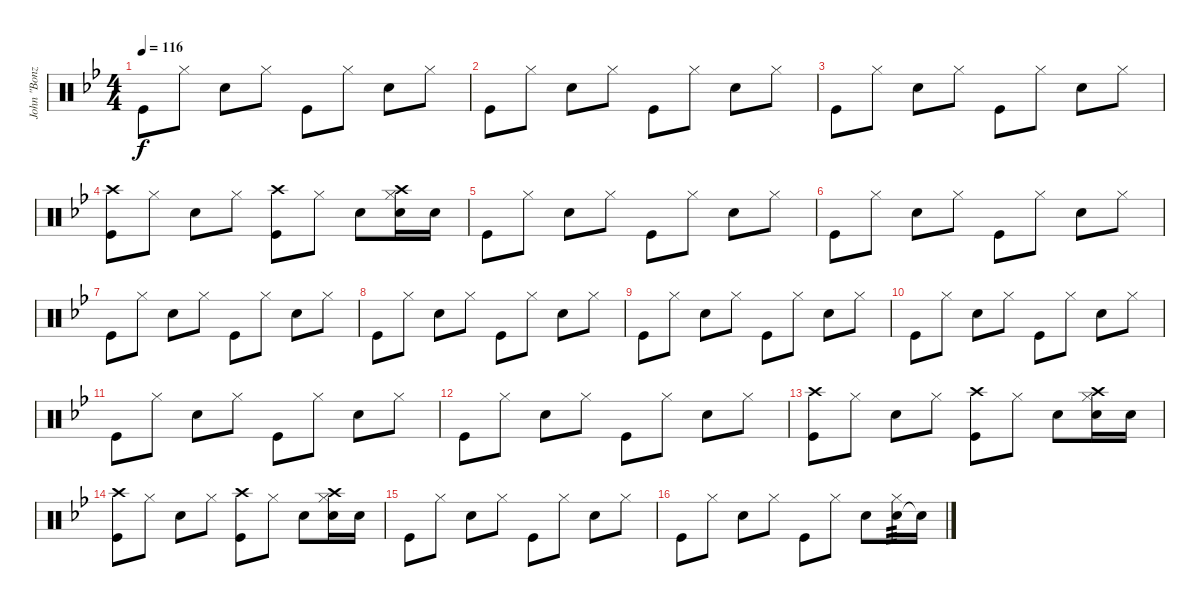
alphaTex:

\track ("John \"Bonzo\" Bonham" "John \"Bonz") {instrument percussion}
\staff {score}
\articulation defaults
\ts (4 4)
\tempo 116
\clef neutral
\ks bb "Kick (hit)".8{dy f} "Hi-Hat (closed)".8 "Snare (hit) 2".8 "Hi-Hat (closed)".8 "Kick (hit)".8 "Hi-Hat (closed)".8 "Snare (hit) 2".8 "Hi-Hat (closed)".8
|
"Kick (hit)".8 "Hi-Hat (closed)".8 "Snare (hit) 2".8 "Hi-Hat (closed)".8 "Kick (hit)".8 "Hi-Hat (closed)".8 "Snare (hit) 2".8 "Hi-Hat (closed)".8 |
"Kick (hit)".8 "Hi-Hat (closed)".8 "Snare (hit) 2".8 "Hi-Hat (closed)".8 "Kick (hit)".8 "Hi-Hat (closed)".8 "Snare (hit) 2".8 "Hi-Hat (closed)".8 |
("Kick (hit)" "Crash high (hit)").8 "Hi-Hat (closed)".8 "Snare (hit) 2".8 "Hi-Hat (closed)".8 ("Kick (hit)" "Crash high (hit)").8 "Hi-Hat (closed)".8 "Snare (hit) 2".8 ("Snare (hit) 2" "Hi-Hat (closed)" "Crash high (hit)").16 "Snare (hit) 2".16 |
"Kick (hit)".8 "Hi-Hat (closed)".8 "Snare (hit) 2".8 "Hi-Hat (closed)".8 "Kick (hit)".8 "Hi-Hat (closed)".8 "Snare (hit) 2".8 "Hi-Hat (closed)".8 |
"Kick (hit)".8 "Hi-Hat (closed)".8 "Snare (hit) 2".8 "Hi-Hat (closed)".8 "Kick (hit)".8 "Hi-Hat (closed)".8 "Snare (hit) 2".8 "Hi-Hat (closed)".8 |
"Kick (hit)".8 "Hi-Hat (closed)".8 "Snare (hit) 2".8 "Hi-Hat (closed)".8 "Kick (hit)".8 "Hi-Hat (closed)".8 "Snare (hit) 2".8 "Hi-Hat (closed)".8 |
"Kick (hit)".8 "Hi-Hat (closed)".8 "Snare (hit) 2".8 "Hi-Hat (closed)".8 "Kick (hit)".8 "Hi-Hat (closed)".8 "Snare (hit) 2".8 "Hi-Hat (closed)".8 |
"Kick (hit)".8 "Hi-Hat (closed)".8 "Snare (hit) 2".8 "Hi-Hat (closed)".8 "Kick (hit)".8 "Hi-Hat (closed)".8 "Snare (hit) 2".8 "Hi-Hat (closed)".8 |
"Kick (hit)".8 "Hi-Hat (closed)".8 "Snare (hit) 2".8 "Hi-Hat (closed)".8 "Kick (hit)".8 "Hi-Hat (closed)".8 "Snare (hit) 2".8 "Hi-Hat (closed)".8 |
"Kick (hit)".8 "Hi-Hat (closed)".8 "Snare (hit) 2".8 "Hi-Hat (closed)".8 "Kick (hit)".8 "Hi-Hat (closed)".8 "Snare (hit) 2".8 "Hi-Hat (closed)".8 |
"Kick (hit)".8 "Hi-Hat (closed)".8 "Snare (hit) 2".8 "Hi-Hat (closed)".8 "Kick (hit)".8 "Hi-Hat (closed)".8 "Snare (hit) 2".8 "Hi-Hat (closed)".8 |
("Kick (hit)" "Crash high (hit)").8 "Hi-Hat (closed)".8 "Snare (hit) 2".8 "Hi-Hat (closed)".8 ("Kick (hit)" "Crash high (hit)").8 "Hi-Hat (closed)".8 "Snare (hit) 2".8 ("Snare (hit) 2" "Hi-Hat (closed)" "Crash high (hit)").16 "Snare (hit) 2".16 |
("Kick (hit)" "Crash high (hit)").8 "Hi-Hat (closed)".8 "Snare (hit) 2".8 "Hi-Hat (closed)".8 ("Kick (hit)" "Crash high (hit)").8 "Hi-Hat (closed)".8 "Snare (hit) 2".8 ("Snare (hit) 2" "Hi-Hat (closed)" "Crash high (hit)").16 "Snare (hit) 2".16 |
"Kick (hit)".8 "Hi-Hat (closed)".8 "Snare (hit) 2".8 "Hi-Hat (closed)".8 "Kick (hit)".8 "Hi-Hat (closed)".8 "Snare (hit) 2".8 "Hi-Hat (closed)".8 |
"Kick (hit)".8 "Hi-Hat (closed)".8 "Snare (hit) 2".8 "Hi-Hat (closed)".8 "Kick (hit)".8 "Hi-Hat (closed)".8 "Snare (hit) 2".8 ("Snare (hit) 2" "Hi-Hat (closed)").16{tp 3} "Snare (hit) 2"{t}.16
